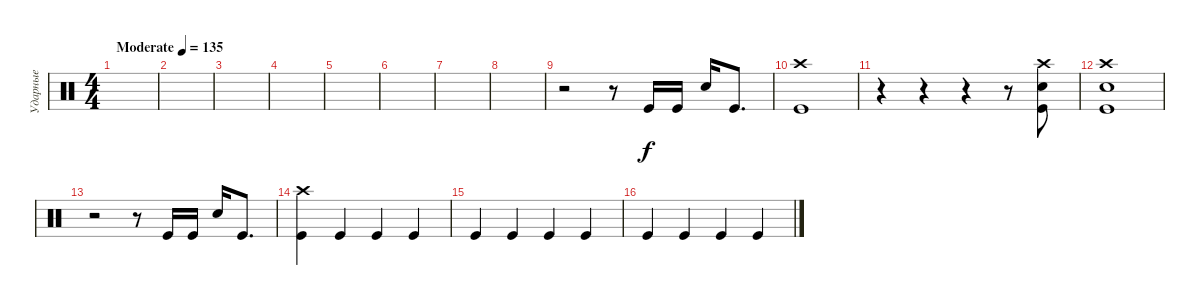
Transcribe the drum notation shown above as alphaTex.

\track ("Ударные" "Ударные") {instrument percussion}
\staff {score}
\articulation defaults
\ts (4 4)
\tempo (135 "Moderate")
\clef neutral
\ks c
|
|
|
|
|
|
|
|
r.2 r.8 "Kick (hit)".16 "Kick (hit)".16 "Snare (hit) 2".16 "Kick (hit)".8{d} |
("Kick (hit)" "Crash high (hit)").1 |
r.4 r.4 r.4 r.8 ("Kick (hit)" "Snare (hit) 2" "Crash high (hit)").8 |
("Kick (hit)" "Snare (hit) 2" "Crash high (hit)").1 |
r.2 r.8 "Kick (hit)".16 "Kick (hit)".16 "Snare (hit) 2".16 "Kick (hit)".8{d} |
("Kick (hit)" "Crash high (hit)").4 "Kick (hit)".4 "Kick (hit)".4 "Kick (hit)".4 |
"Kick (hit)".4 "Kick (hit)".4 "Kick (hit)".4 "Kick (hit)".4 |
"Kick (hit)".4 "Kick (hit)".4 "Kick (hit)".4 "Kick (hit)".4
